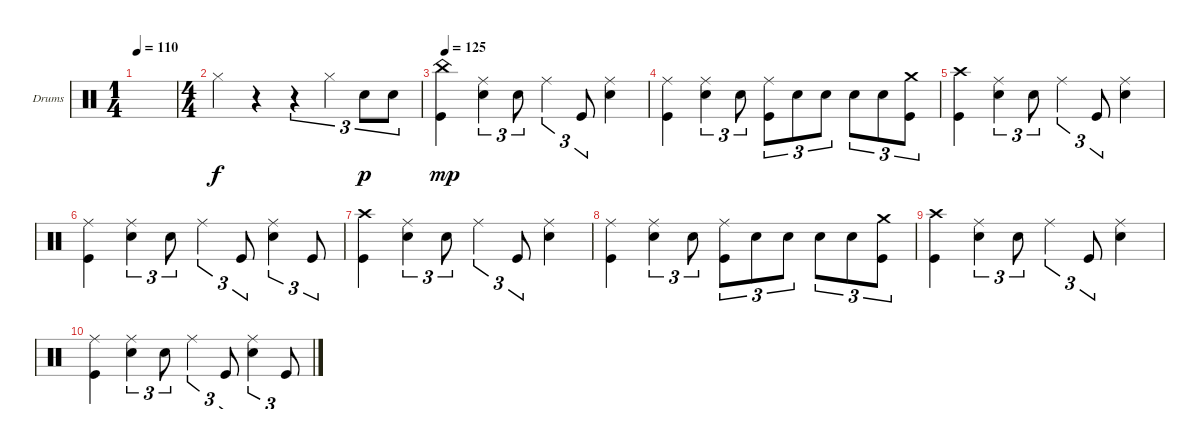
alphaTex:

\defaultSystemsLayout 4
\bracketExtendMode groupsimilarinstruments
\firstSystemTrackNameOrientation horizontal
\otherSystemsTrackNameOrientation horizontal
\track ("Drumkit" "Drums") {instrument percussion}
\staff {score}
\articulation defaults
\ts (1 4)
\tempo 110
\clef neutral
\ks c
|
\ts (4 4)
"Hi-Hat (closed)".4 r.4 r.4{tu (3 2)} "Hi-Hat (closed)".4{tu (3 2)} "Snare (hit) 2".8{tu (3 2) dy p} "Snare (hit) 2".8{tu (3 2)} |
\scale
0.49543
\tempo (125 0.00625)
("Kick (hit)" "China (hit)").4{dy mp} ("Snare (hit) 2" "Ride (middle)").4{tu (3 2)} "Snare (hit) 2".8{tu (3 2)} "Ride (middle)".4{tu (3 2)} "Kick (hit)".8{tu (3 2)} ("Snare (hit) 2" "Ride (middle)").4 |
\scale
0.50457 ("Kick (hit)" "Ride (middle)").4 ("Snare (hit) 2" "Ride (middle)").4{tu (3 2)} "Snare (hit) 2".8{tu (3 2)} ("Kick (hit)" "Ride (middle)").8{tu (3 2)} "Snare (hit) 2".8{tu (3 2)} "Snare (hit) 2".8{tu (3 2)} "Snare (hit) 2".8{tu (3 2)} "Snare (hit) 2".8{tu (3 2)} ("Kick (hit)" "Crash medium (hit)").8{tu (3 2)} |
("Crash high (hit)" "Kick (hit)").4 ("Snare (hit) 2" "Ride (middle)").4{tu (3 2)} "Snare (hit) 2".8{tu (3 2)} "Ride (middle)".4{tu (3 2)} "Kick (hit)".8{tu (3 2)} ("Snare (hit) 2" "Ride (middle)").4 |
("Kick (hit)" "Ride (middle)").4 ("Snare (hit) 2" "Ride (middle)").4{tu (3 2)} "Snare (hit) 2".8{tu (3 2)} "Ride (middle)".4{tu (3 2)} "Kick (hit)".8{tu (3 2)} ("Snare (hit) 2" "Ride (middle)").4{tu (3 2)} "Kick (hit)".8{tu (3 2)} |
("Crash high (hit)" "Kick (hit)").4 ("Snare (hit) 2" "Ride (middle)").4{tu (3 2)} "Snare (hit) 2".8{tu (3 2)} "Ride (middle)".4{tu (3 2)} "Kick (hit)".8{tu (3 2)} ("Snare (hit) 2" "Ride (middle)").4 |
("Kick (hit)" "Ride (middle)").4 ("Snare (hit) 2" "Ride (middle)").4{tu (3 2)} "Snare (hit) 2".8{tu (3 2)} ("Kick (hit)" "Ride (middle)").8{tu (3 2)} "Snare (hit) 2".8{tu (3 2)} "Snare (hit) 2".8{tu (3 2)} "Snare (hit) 2".8{tu (3 2)} "Snare (hit) 2".8{tu (3 2)} ("Kick (hit)" "Crash medium (hit)").8{tu (3 2)} |
("Crash high (hit)" "Kick (hit)").4 ("Snare (hit) 2" "Ride (middle)").4{tu (3 2)} "Snare (hit) 2".8{tu (3 2)} "Ride (middle)".4{tu (3 2)} "Kick (hit)".8{tu (3 2)} ("Snare (hit) 2" "Ride (middle)").4 |
("Kick (hit)" "Ride (middle)").4 ("Snare (hit) 2" "Ride (middle)").4{tu (3 2)} "Snare (hit) 2".8{tu (3 2)} "Ride (middle)".4{tu (3 2)} "Kick (hit)".8{tu (3 2)} ("Snare (hit) 2" "Ride (middle)").4{tu (3 2)} "Kick (hit)".8{tu (3 2)}
